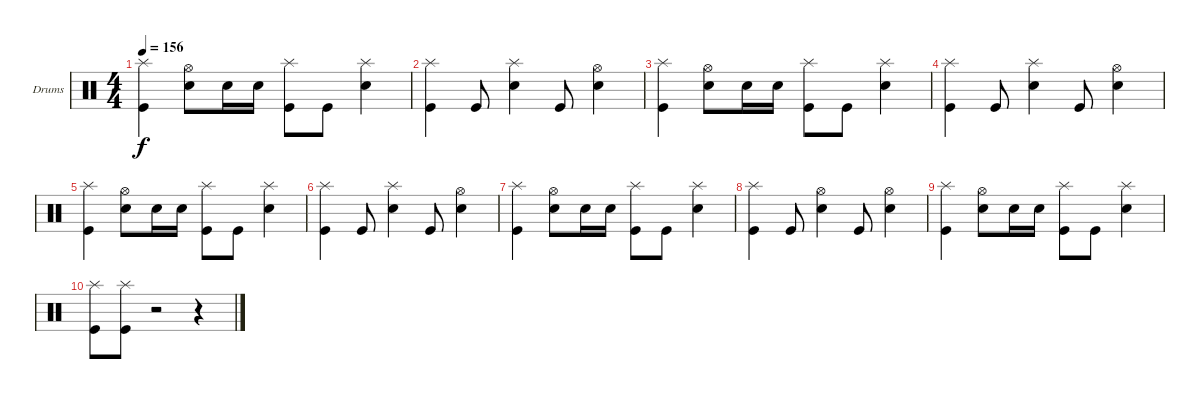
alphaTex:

\bracketExtendMode groupsimilarinstruments
\firstSystemTrackNameOrientation horizontal
\otherSystemsTrackNameOrientation horizontal
\track ("Drumkit" "Drums") {instrument percussion}
\staff {score}
\articulation defaults
\ts (4 4)
\tempo 156
\clef neutral
\scale
1.02648
\ks c
("Splash (hit)" "Kick (hit)").4{dy f} ("Hi-Hat (open)" "Snare (hit) 2").8 "Snare (hit) 2".16 "Snare (hit) 2".16 ("Splash (hit)" "Kick (hit)").8 "Kick (hit)".8 ("Splash (hit)" "Snare (hit) 2").4 |
\scale
0.973518 ("Splash (hit)" "Kick (hit)").4 "Kick (hit)".8 ("Splash (hit)" "Snare (hit) 2").4 "Kick (hit)".8 ("Hi-Hat (open)" "Snare (hit) 2").4 |
\scale
1.02648 ("Splash (hit)" "Kick (hit)").4 ("Hi-Hat (open)" "Snare (hit) 2").8 "Snare (hit) 2".16 "Snare (hit) 2".16 ("Splash (hit)" "Kick (hit)").8 "Kick (hit)".8 ("Splash (hit)" "Snare (hit) 2").4 |
\scale
0.973518 ("Splash (hit)" "Kick (hit)").4 "Kick (hit)".8 ("Splash (hit)" "Snare (hit) 2").4 "Kick (hit)".8 ("Hi-Hat (open)" "Snare (hit) 2").4 |
\scale
1.02648 ("Splash (hit)" "Kick (hit)").4 ("Hi-Hat (open)" "Snare (hit) 2").8 "Snare (hit) 2".16 "Snare (hit) 2".16 ("Splash (hit)" "Kick (hit)").8 "Kick (hit)".8 ("Splash (hit)" "Snare (hit) 2").4 |
\scale
0.973518 ("Splash (hit)" "Kick (hit)").4 "Kick (hit)".8 ("Splash (hit)" "Snare (hit) 2").4 "Kick (hit)".8 ("Hi-Hat (open)" "Snare (hit) 2").4 |
\scale
1.02648 ("Splash (hit)" "Kick (hit)").4 ("Hi-Hat (open)" "Snare (hit) 2").8 "Snare (hit) 2".16 "Snare (hit) 2".16 ("Splash (hit)" "Kick (hit)").8 "Kick (hit)".8 ("Splash (hit)" "Snare (hit) 2").4 |
\scale
0.973518 ("Splash (hit)" "Kick (hit)").4 "Kick (hit)".8 ("Hi-Hat (open)" "Snare (hit) 2").4 "Kick (hit)".8 ("Hi-Hat (open)" "Snare (hit) 2").4 |
\scale
1.02648 ("Splash (hit)" "Kick (hit)").4 ("Hi-Hat (open)" "Snare (hit) 2").8 "Snare (hit) 2".16 "Snare (hit) 2".16 ("Splash (hit)" "Kick (hit)").8 "Kick (hit)".8 ("Splash (hit)" "Snare (hit) 2").4 |
\scale
0.973518 ("Splash (hit)" "Kick (hit)").8 ("Splash (hit)" "Kick (hit)").8 r.2 r.4
